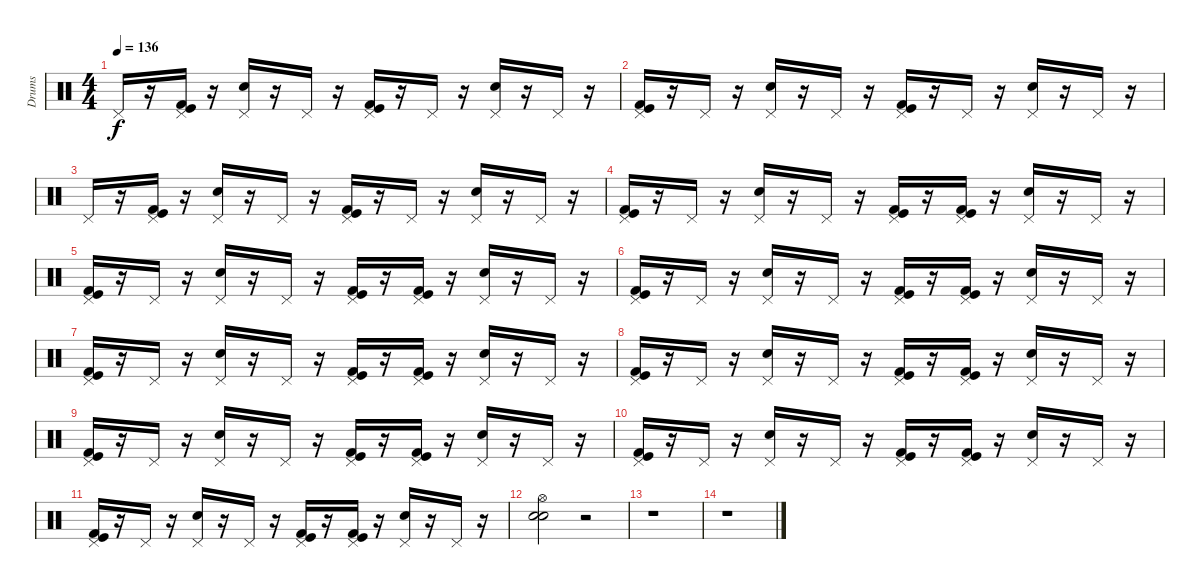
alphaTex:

\track ("Drums" "Drums") {instrument percussion}
\staff {score}
\articulation defaults
\ts (4 4)
\tempo 136
\clef neutral
\ks c "Pedal Hi-Hat (hit)".16{dy f}
r.16 ("Kick (hit) 2" "Kick (hit)" "Pedal Hi-Hat (hit)").16 r.16 ("Snare (hit) 2" "Pedal Hi-Hat (hit)").16 r.16 "Pedal Hi-Hat (hit)".16 r.16 ("Kick (hit) 2" "Kick (hit)" "Pedal Hi-Hat (hit)").16 r.16 "Pedal Hi-Hat (hit)".16 r.16 ("Snare (hit) 2" "Pedal Hi-Hat (hit)").16 r.16 "Pedal Hi-Hat (hit)".16 r.16 |
("Kick (hit) 2" "Kick (hit)" "Pedal Hi-Hat (hit)").16 r.16 "Pedal Hi-Hat (hit)".16 r.16 ("Snare (hit) 2" "Pedal Hi-Hat (hit)").16 r.16 "Pedal Hi-Hat (hit)".16 r.16 ("Kick (hit) 2" "Kick (hit)" "Pedal Hi-Hat (hit)").16 r.16 "Pedal Hi-Hat (hit)".16 r.16 ("Snare (hit) 2" "Pedal Hi-Hat (hit)").16 r.16 "Pedal Hi-Hat (hit)".16 r.16 |
"Pedal Hi-Hat (hit)".16 r.16 ("Kick (hit) 2" "Kick (hit)" "Pedal Hi-Hat (hit)").16 r.16 ("Snare (hit) 2" "Pedal Hi-Hat (hit)").16 r.16 "Pedal Hi-Hat (hit)".16 r.16 ("Kick (hit) 2" "Kick (hit)" "Pedal Hi-Hat (hit)").16 r.16 "Pedal Hi-Hat (hit)".16 r.16 ("Snare (hit) 2" "Pedal Hi-Hat (hit)").16 r.16 "Pedal Hi-Hat (hit)".16 r.16 |
("Kick (hit) 2" "Kick (hit)" "Pedal Hi-Hat (hit)").16 r.16 "Pedal Hi-Hat (hit)".16 r.16 ("Electric Snare (hit)" "Pedal Hi-Hat (hit)").16 r.16 "Pedal Hi-Hat (hit)".16 r.16 ("Kick (hit) 2" "Kick (hit)" "Pedal Hi-Hat (hit)").16 r.16 ("Kick (hit) 2" "Kick (hit)" "Pedal Hi-Hat (hit)").16 r.16 ("Electric Snare (hit)" "Pedal Hi-Hat (hit)").16 r.16 "Pedal Hi-Hat (hit)".16 r.16 |
("Kick (hit) 2" "Kick (hit)" "Pedal Hi-Hat (hit)").16 r.16 "Pedal Hi-Hat (hit)".16 r.16 ("Electric Snare (hit)" "Pedal Hi-Hat (hit)").16 r.16 "Pedal Hi-Hat (hit)".16 r.16 ("Kick (hit) 2" "Kick (hit)" "Pedal Hi-Hat (hit)").16 r.16 ("Kick (hit) 2" "Kick (hit)" "Pedal Hi-Hat (hit)").16 r.16 ("Electric Snare (hit)" "Pedal Hi-Hat (hit)").16 r.16 "Pedal Hi-Hat (hit)".16 r.16 |
("Kick (hit) 2" "Kick (hit)" "Pedal Hi-Hat (hit)").16 r.16 "Pedal Hi-Hat (hit)".16 r.16 ("Electric Snare (hit)" "Pedal Hi-Hat (hit)").16 r.16 "Pedal Hi-Hat (hit)".16 r.16 ("Kick (hit) 2" "Kick (hit)" "Pedal Hi-Hat (hit)").16 r.16 ("Kick (hit) 2" "Kick (hit)" "Pedal Hi-Hat (hit)").16 r.16 ("Electric Snare (hit)" "Pedal Hi-Hat (hit)").16 r.16 "Pedal Hi-Hat (hit)".16 r.16 |
("Kick (hit) 2" "Kick (hit)" "Pedal Hi-Hat (hit)").16 r.16 "Pedal Hi-Hat (hit)".16 r.16 ("Electric Snare (hit)" "Pedal Hi-Hat (hit)").16 r.16 "Pedal Hi-Hat (hit)".16 r.16 ("Kick (hit) 2" "Kick (hit)" "Pedal Hi-Hat (hit)").16 r.16 ("Kick (hit) 2" "Kick (hit)" "Pedal Hi-Hat (hit)").16 r.16 ("Electric Snare (hit)" "Pedal Hi-Hat (hit)").16 r.16 "Pedal Hi-Hat (hit)".16 r.16 |
("Kick (hit) 2" "Kick (hit)" "Pedal Hi-Hat (hit)").16 r.16 "Pedal Hi-Hat (hit)".16 r.16 ("Electric Snare (hit)" "Pedal Hi-Hat (hit)").16 r.16 "Pedal Hi-Hat (hit)".16 r.16 ("Kick (hit) 2" "Kick (hit)" "Pedal Hi-Hat (hit)").16 r.16 ("Kick (hit) 2" "Kick (hit)" "Pedal Hi-Hat (hit)").16 r.16 ("Electric Snare (hit)" "Pedal Hi-Hat (hit)").16 r.16 "Pedal Hi-Hat (hit)".16 r.16 |
("Kick (hit) 2" "Kick (hit)" "Pedal Hi-Hat (hit)").16 r.16 "Pedal Hi-Hat (hit)".16 r.16 ("Electric Snare (hit)" "Pedal Hi-Hat (hit)").16 r.16 "Pedal Hi-Hat (hit)".16 r.16 ("Kick (hit) 2" "Kick (hit)" "Pedal Hi-Hat (hit)").16 r.16 ("Kick (hit) 2" "Kick (hit)" "Pedal Hi-Hat (hit)").16 r.16 ("Electric Snare (hit)" "Pedal Hi-Hat (hit)").16 r.16 "Pedal Hi-Hat (hit)".16 r.16 |
("Kick (hit) 2" "Kick (hit)" "Pedal Hi-Hat (hit)").16 r.16 "Pedal Hi-Hat (hit)".16 r.16 ("Electric Snare (hit)" "Pedal Hi-Hat (hit)").16 r.16 "Pedal Hi-Hat (hit)".16 r.16 ("Kick (hit) 2" "Kick (hit)" "Pedal Hi-Hat (hit)").16 r.16 ("Kick (hit) 2" "Kick (hit)" "Pedal Hi-Hat (hit)").16 r.16 ("Electric Snare (hit)" "Pedal Hi-Hat (hit)").16 r.16 "Pedal Hi-Hat (hit)".16 r.16 |
("Kick (hit) 2" "Kick (hit)" "Pedal Hi-Hat (hit)").16 r.16 "Pedal Hi-Hat (hit)".16 r.16 ("Electric Snare (hit)" "Pedal Hi-Hat (hit)").16 r.16 "Pedal Hi-Hat (hit)".16 r.16 ("Kick (hit) 2" "Kick (hit)" "Pedal Hi-Hat (hit)").16 r.16 ("Kick (hit) 2" "Kick (hit)" "Pedal Hi-Hat (hit)").16 r.16 ("Electric Snare (hit)" "Pedal Hi-Hat (hit)").16 r.16 "Pedal Hi-Hat (hit)".16 r.16 |
("Snare (hit) 2" "Electric Snare (hit)" "Hi-Hat (open)").2 r.2 |
r.1 |
r.1
